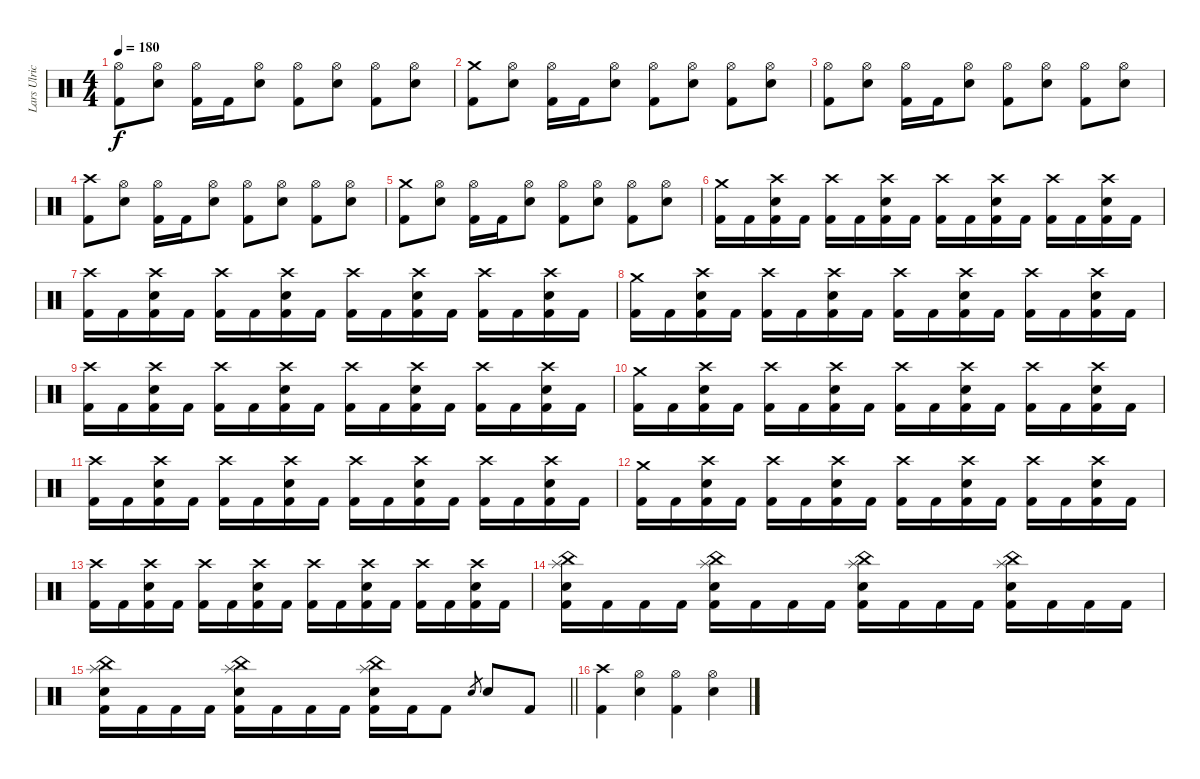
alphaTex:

\track ("Lars Ulrich" "Lars Ulric") {instrument percussion}
\staff {score}
\articulation defaults
\ts (4 4)
\tempo 180
\clef neutral
\ks c
("Hi-Hat (open)" "Kick (hit) 2").8{dy f} ("Hi-Hat (open)" "Electric Snare (hit)").8 ("Hi-Hat (open)" "Kick (hit) 2").16 "Kick (hit) 2".16 ("Hi-Hat (open)" "Electric Snare (hit)").8 ("Hi-Hat (open)" "Kick (hit) 2").8 ("Hi-Hat (open)" "Electric Snare (hit)").8 ("Hi-Hat (open)" "Kick (hit) 2").8 ("Hi-Hat (open)" "Electric Snare (hit)").8 |
("Crash medium (hit)" "Kick (hit) 2").8 ("Hi-Hat (open)" "Electric Snare (hit)").8 ("Hi-Hat (open)" "Kick (hit) 2").16 "Kick (hit) 2".16 ("Hi-Hat (open)" "Electric Snare (hit)").8 ("Hi-Hat (open)" "Kick (hit) 2").8 ("Hi-Hat (open)" "Electric Snare (hit)").8 ("Hi-Hat (open)" "Kick (hit) 2").8 ("Hi-Hat (open)" "Electric Snare (hit)").8 |
("Hi-Hat (open)" "Kick (hit) 2").8 ("Hi-Hat (open)" "Electric Snare (hit)").8 ("Hi-Hat (open)" "Kick (hit) 2").16 "Kick (hit) 2".16 ("Hi-Hat (open)" "Electric Snare (hit)").8 ("Hi-Hat (open)" "Kick (hit) 2").8 ("Hi-Hat (open)" "Electric Snare (hit)").8 ("Hi-Hat (open)" "Kick (hit) 2").8 ("Hi-Hat (open)" "Electric Snare (hit)").8 |
("Crash high (hit)" "Kick (hit) 2").8 ("Hi-Hat (open)" "Electric Snare (hit)").8 ("Hi-Hat (open)" "Kick (hit) 2").16 "Kick (hit) 2".16 ("Hi-Hat (open)" "Electric Snare (hit)").8 ("Hi-Hat (open)" "Kick (hit) 2").8 ("Hi-Hat (open)" "Electric Snare (hit)").8 ("Hi-Hat (open)" "Kick (hit) 2").8 ("Hi-Hat (open)" "Electric Snare (hit)").8 |
("Crash medium (hit)" "Kick (hit) 2").8 ("Hi-Hat (open)" "Electric Snare (hit)").8 ("Hi-Hat (open)" "Kick (hit) 2").16 "Kick (hit) 2".16 ("Hi-Hat (open)" "Electric Snare (hit)").8 ("Hi-Hat (open)" "Kick (hit) 2").8 ("Hi-Hat (open)" "Electric Snare (hit)").8 ("Hi-Hat (open)" "Kick (hit) 2").8 ("Hi-Hat (open)" "Electric Snare (hit)").8 |
("Crash medium (hit)" "Kick (hit) 2").16 "Kick (hit) 2".16 ("Crash high (hit)" "Electric Snare (hit)" "Kick (hit) 2").16 "Kick (hit) 2".16 ("Crash high (hit)" "Kick (hit) 2").16 "Kick (hit) 2".16 ("Crash high (hit)" "Electric Snare (hit)" "Kick (hit) 2").16 "Kick (hit) 2".16 ("Crash high (hit)" "Kick (hit) 2").16 "Kick (hit) 2".16 ("Crash high (hit)" "Electric Snare (hit)" "Kick (hit) 2").16 "Kick (hit) 2".16 ("Crash high (hit)" "Kick (hit) 2").16 "Kick (hit) 2".16 ("Crash high (hit)" "Electric Snare (hit)" "Kick (hit) 2").16 "Kick (hit) 2".16 |
("Crash high (hit)" "Kick (hit) 2").16 "Kick (hit) 2".16 ("Crash high (hit)" "Electric Snare (hit)" "Kick (hit) 2").16 "Kick (hit) 2".16 ("Crash high (hit)" "Kick (hit) 2").16 "Kick (hit) 2".16 ("Crash high (hit)" "Electric Snare (hit)" "Kick (hit) 2").16 "Kick (hit) 2".16 ("Crash high (hit)" "Kick (hit) 2").16 "Kick (hit) 2".16 ("Crash high (hit)" "Electric Snare (hit)" "Kick (hit) 2").16 "Kick (hit) 2".16 ("Crash high (hit)" "Kick (hit) 2").16 "Kick (hit) 2".16 ("Crash high (hit)" "Electric Snare (hit)" "Kick (hit) 2").16 "Kick (hit) 2".16 |
("Crash medium (hit)" "Kick (hit) 2").16 "Kick (hit) 2".16 ("Crash high (hit)" "Electric Snare (hit)" "Kick (hit) 2").16 "Kick (hit) 2".16 ("Crash high (hit)" "Kick (hit) 2").16 "Kick (hit) 2".16 ("Crash high (hit)" "Electric Snare (hit)" "Kick (hit) 2").16 "Kick (hit) 2".16 ("Crash high (hit)" "Kick (hit) 2").16 "Kick (hit) 2".16 ("Crash high (hit)" "Electric Snare (hit)" "Kick (hit) 2").16 "Kick (hit) 2".16 ("Crash high (hit)" "Kick (hit) 2").16 "Kick (hit) 2".16 ("Crash high (hit)" "Electric Snare (hit)" "Kick (hit) 2").16 "Kick (hit) 2".16 |
("Crash high (hit)" "Kick (hit) 2").16 "Kick (hit) 2".16 ("Crash high (hit)" "Electric Snare (hit)" "Kick (hit) 2").16 "Kick (hit) 2".16 ("Crash high (hit)" "Kick (hit) 2").16 "Kick (hit) 2".16 ("Crash high (hit)" "Electric Snare (hit)" "Kick (hit) 2").16 "Kick (hit) 2".16 ("Crash high (hit)" "Kick (hit) 2").16 "Kick (hit) 2".16 ("Crash high (hit)" "Electric Snare (hit)" "Kick (hit) 2").16 "Kick (hit) 2".16 ("Crash high (hit)" "Kick (hit) 2").16 "Kick (hit) 2".16 ("Crash high (hit)" "Electric Snare (hit)" "Kick (hit) 2").16 "Kick (hit) 2".16 |
("Crash medium (hit)" "Kick (hit) 2").16 "Kick (hit) 2".16 ("Crash high (hit)" "Electric Snare (hit)" "Kick (hit) 2").16 "Kick (hit) 2".16 ("Crash high (hit)" "Kick (hit) 2").16 "Kick (hit) 2".16 ("Crash high (hit)" "Electric Snare (hit)" "Kick (hit) 2").16 "Kick (hit) 2".16 ("Crash high (hit)" "Kick (hit) 2").16 "Kick (hit) 2".16 ("Crash high (hit)" "Electric Snare (hit)" "Kick (hit) 2").16 "Kick (hit) 2".16 ("Crash high (hit)" "Kick (hit) 2").16 "Kick (hit) 2".16 ("Crash high (hit)" "Electric Snare (hit)" "Kick (hit) 2").16 "Kick (hit) 2".16 |
("Crash high (hit)" "Kick (hit) 2").16 "Kick (hit) 2".16 ("Crash high (hit)" "Electric Snare (hit)" "Kick (hit) 2").16 "Kick (hit) 2".16 ("Crash high (hit)" "Kick (hit) 2").16 "Kick (hit) 2".16 ("Crash high (hit)" "Electric Snare (hit)" "Kick (hit) 2").16 "Kick (hit) 2".16 ("Crash high (hit)" "Kick (hit) 2").16 "Kick (hit) 2".16 ("Crash high (hit)" "Electric Snare (hit)" "Kick (hit) 2").16 "Kick (hit) 2".16 ("Crash high (hit)" "Kick (hit) 2").16 "Kick (hit) 2".16 ("Crash high (hit)" "Electric Snare (hit)" "Kick (hit) 2").16 "Kick (hit) 2".16 |
("Crash medium (hit)" "Kick (hit) 2").16 "Kick (hit) 2".16 ("Crash high (hit)" "Electric Snare (hit)" "Kick (hit) 2").16 "Kick (hit) 2".16 ("Crash high (hit)" "Kick (hit) 2").16 "Kick (hit) 2".16 ("Crash high (hit)" "Electric Snare (hit)" "Kick (hit) 2").16 "Kick (hit) 2".16 ("Crash high (hit)" "Kick (hit) 2").16 "Kick (hit) 2".16 ("Crash high (hit)" "Electric Snare (hit)" "Kick (hit) 2").16 "Kick (hit) 2".16 ("Crash high (hit)" "Kick (hit) 2").16 "Kick (hit) 2".16 ("Crash high (hit)" "Electric Snare (hit)" "Kick (hit) 2").16 "Kick (hit) 2".16 |
("Crash high (hit)" "Kick (hit) 2").16 "Kick (hit) 2".16 ("Crash high (hit)" "Electric Snare (hit)" "Kick (hit) 2").16 "Kick (hit) 2".16 ("Crash high (hit)" "Kick (hit) 2").16 "Kick (hit) 2".16 ("Crash high (hit)" "Electric Snare (hit)" "Kick (hit) 2").16 "Kick (hit) 2".16 ("Crash high (hit)" "Kick (hit) 2").16 "Kick (hit) 2".16 ("Crash high (hit)" "Electric Snare (hit)" "Kick (hit) 2").16 "Kick (hit) 2".16 ("Crash high (hit)" "Kick (hit) 2").16 "Kick (hit) 2".16 ("Crash high (hit)" "Electric Snare (hit)" "Kick (hit) 2").16 "Kick (hit) 2".16 |
("Splash (hit)" "China (hit)" "Electric Snare (hit)" "Kick (hit) 2").16 "Kick (hit) 2".16 "Kick (hit) 2".16 "Kick (hit) 2".16 ("Splash (hit)" "China (hit)" "Electric Snare (hit)" "Kick (hit) 2").16 "Kick (hit) 2".16 "Kick (hit) 2".16 "Kick (hit) 2".16 ("Splash (hit)" "China (hit)" "Electric Snare (hit)" "Kick (hit) 2").16 "Kick (hit) 2".16 "Kick (hit) 2".16 "Kick (hit) 2".16 ("Splash (hit)" "China (hit)" "Electric Snare (hit)" "Kick (hit) 2").16 "Kick (hit) 2".16 "Kick (hit) 2".16 "Kick (hit) 2".16 |
\barLineRight lightlight
("Splash (hit)" "China (hit)" "Electric Snare (hit)" "Kick (hit) 2").16 "Kick (hit) 2".16 "Kick (hit) 2".16 "Kick (hit) 2".16 ("Splash (hit)" "China (hit)" "Electric Snare (hit)" "Kick (hit) 2").16 "Kick (hit) 2".16 "Kick (hit) 2".16 "Kick (hit) 2".16 ("Splash (hit)" "China (hit)" "Electric Snare (hit)" "Kick (hit) 2").16 "Kick (hit) 2".16 "Kick (hit) 2".8 "Electric Snare (hit)".8{gr} "Electric Snare (hit)".8 "Kick (hit) 2".8 |
\section ("" "")
("Crash high (hit)" "Kick (hit) 2").4 ("Hi-Hat (open)" "Electric Snare (hit)").4 ("Hi-Hat (open)" "Kick (hit) 2").4 ("Hi-Hat (open)" "Electric Snare (hit)").4
